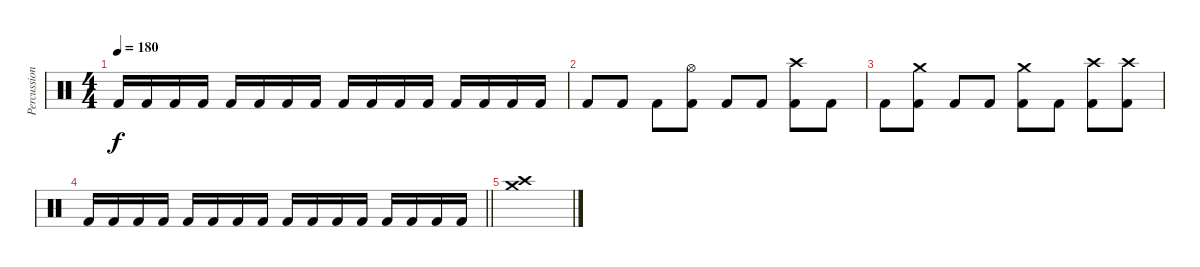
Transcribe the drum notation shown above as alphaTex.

\track ("Percussion" "Percussion") {instrument percussion}
\staff {score}
\articulation defaults
\ts (4 4)
\tempo 180
\clef neutral
\ks c "Kick (hit) 2".16{dy f} "Kick (hit) 2".16 "Kick (hit) 2".16 "Kick (hit) 2".16 "Kick (hit) 2".16 "Kick (hit) 2".16 "Kick (hit) 2".16 "Kick (hit) 2".16 "Kick (hit) 2".16 "Kick (hit) 2".16 "Kick (hit) 2".16 "Kick (hit) 2".16 "Kick (hit) 2".16 "Kick (hit) 2".16 "Kick (hit) 2".16 "Kick (hit) 2".16
|
"Kick (hit) 2".8 "Kick (hit) 2".8 "Kick (hit) 2".8 ("Kick (hit) 2" "Hi-Hat (open)").8 "Kick (hit) 2".8 "Kick (hit) 2".8 ("Kick (hit) 2" "Crash high (hit)").8 "Kick (hit) 2".8 |
"Kick (hit) 2".8 ("Kick (hit) 2" "Crash medium (hit)").8 "Kick (hit) 2".8 "Kick (hit) 2".8 ("Kick (hit) 2" "Crash medium (hit)").8 "Kick (hit) 2".8 ("Kick (hit) 2" "Crash high (hit)").8 ("Kick (hit) 2" "Crash high (hit)").8 |
\barLineRight lightlight "Kick (hit) 2".16 "Kick (hit) 2".16 "Kick (hit) 2".16 "Kick (hit) 2".16 "Kick (hit) 2".16 "Kick (hit) 2".16 "Kick (hit) 2".16 "Kick (hit) 2".16 "Kick (hit) 2".16 "Kick (hit) 2".16 "Kick (hit) 2".16 "Kick (hit) 2".16 "Kick (hit) 2".16 "Kick (hit) 2".16 "Kick (hit) 2".16 "Kick (hit) 2".16
|
("Crash high (hit)" "Crash medium (hit)").1
